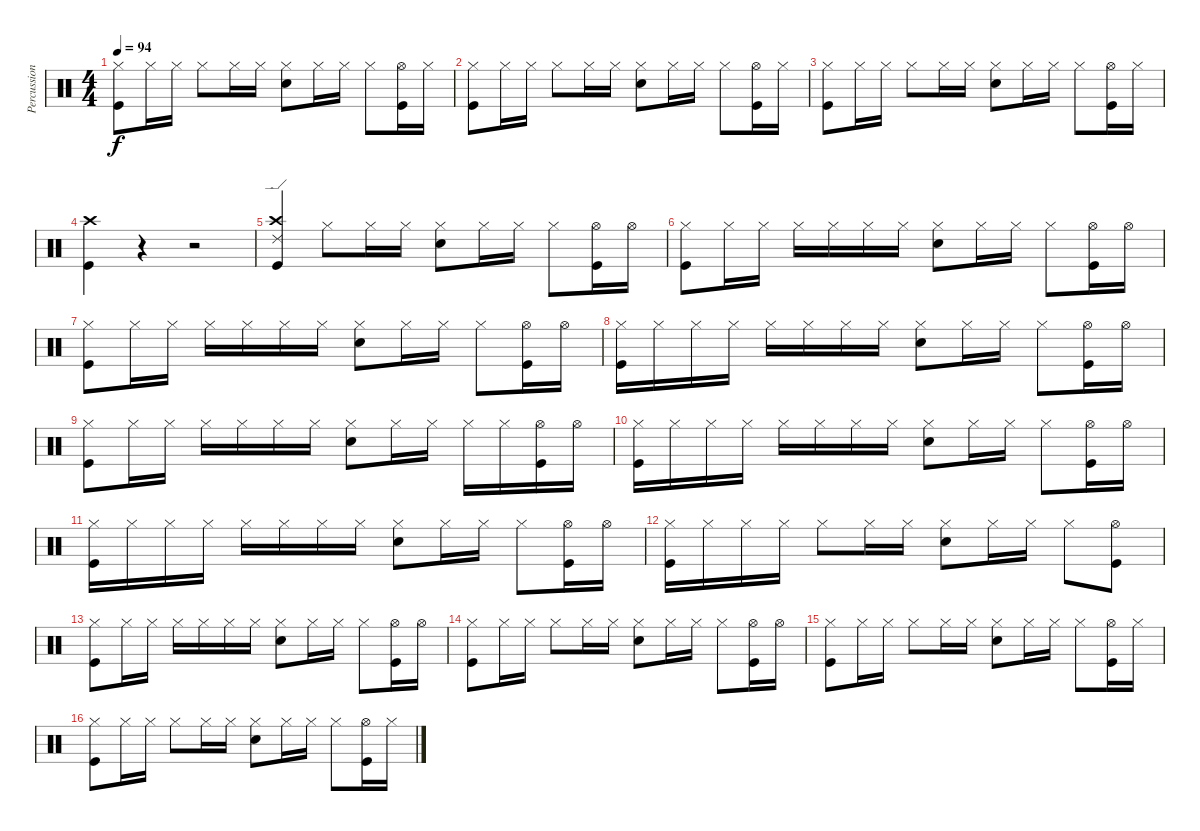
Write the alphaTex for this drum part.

\track ("Percussions" "Percussion") {instrument percussion}
\staff {score}
\articulation defaults
\ts (4 4)
\tempo 94
\clef neutral
\ks c
("Hi-Hat (closed)" "Kick (hit)").8{dy f} "Hi-Hat (closed)".16 "Hi-Hat (closed)".16 "Hi-Hat (closed)".8 "Hi-Hat (closed)".16 "Hi-Hat (closed)".16 ("Hi-Hat (closed)" "Electric Snare (hit)").8 "Hi-Hat (closed)".16 "Hi-Hat (closed)".16 "Hi-Hat (closed)".8 ("Hi-Hat (open)" "Kick (hit)").16 "Hi-Hat (closed)".16 |
("Hi-Hat (closed)" "Kick (hit)").8 "Hi-Hat (closed)".16 "Hi-Hat (closed)".16 "Hi-Hat (closed)".8 "Hi-Hat (closed)".16 "Hi-Hat (closed)".16 ("Hi-Hat (closed)" "Electric Snare (hit)").8 "Hi-Hat (closed)".16 "Hi-Hat (closed)".16 "Hi-Hat (closed)".8 ("Hi-Hat (open)" "Kick (hit)").16 "Hi-Hat (closed)".16 |
("Hi-Hat (closed)" "Kick (hit)").8 "Hi-Hat (closed)".16 "Hi-Hat (closed)".16 "Hi-Hat (closed)".8 "Hi-Hat (closed)".16 "Hi-Hat (closed)".16 ("Hi-Hat (closed)" "Electric Snare (hit)").8 "Hi-Hat (closed)".16 "Hi-Hat (closed)".16 "Hi-Hat (closed)".8 ("Hi-Hat (open)" "Kick (hit)").16 "Hi-Hat (closed)".16 |
("Crash high (hit)" "Kick (hit)").4 r.4 r.2 |
("Crash high (hit)" "Ride (edge) 2" "Kick (hit)").4 "Hi-Hat (closed)".8 "Hi-Hat (closed)".16 "Hi-Hat (closed)".16 ("Hi-Hat (closed)" "Electric Snare (hit)").8 "Hi-Hat (closed)".16 "Hi-Hat (closed)".16 "Hi-Hat (closed)".8 ("Hi-Hat (open)" "Kick (hit)").16 "Hi-Hat (open)".16 |
("Hi-Hat (closed)" "Kick (hit)").8 "Hi-Hat (closed)".16 "Hi-Hat (closed)".16 "Hi-Hat (closed)".16 "Hi-Hat (closed)".16 "Hi-Hat (closed)".16 "Hi-Hat (closed)".16 ("Hi-Hat (closed)" "Electric Snare (hit)").8 "Hi-Hat (closed)".16 "Hi-Hat (closed)".16 "Hi-Hat (closed)".8 ("Hi-Hat (open)" "Kick (hit)").16 "Hi-Hat (open)".16 |
("Hi-Hat (closed)" "Kick (hit)").8 "Hi-Hat (closed)".16 "Hi-Hat (closed)".16 "Hi-Hat (closed)".16 "Hi-Hat (closed)".16 "Hi-Hat (closed)".16 "Hi-Hat (closed)".16 ("Hi-Hat (closed)" "Electric Snare (hit)").8 "Hi-Hat (closed)".16 "Hi-Hat (closed)".16 "Hi-Hat (closed)".8 ("Hi-Hat (open)" "Kick (hit)").16 "Hi-Hat (open)".16 |
("Hi-Hat (closed)" "Kick (hit)").16 "Hi-Hat (closed)".16 "Hi-Hat (closed)".16 "Hi-Hat (closed)".16 "Hi-Hat (closed)".16 "Hi-Hat (closed)".16 "Hi-Hat (closed)".16 "Hi-Hat (closed)".16 ("Hi-Hat (closed)" "Electric Snare (hit)").8 "Hi-Hat (closed)".16 "Hi-Hat (closed)".16 "Hi-Hat (closed)".8 ("Hi-Hat (open)" "Kick (hit)").16 "Hi-Hat (open)".16 |
("Hi-Hat (closed)" "Kick (hit)").8 "Hi-Hat (closed)".16 "Hi-Hat (closed)".16 "Hi-Hat (closed)".16 "Hi-Hat (closed)".16 "Hi-Hat (closed)".16 "Hi-Hat (closed)".16 ("Hi-Hat (closed)" "Electric Snare (hit)").8 "Hi-Hat (closed)".16 "Hi-Hat (closed)".16 "Hi-Hat (closed)".16 "Hi-Hat (closed)".16 ("Hi-Hat (open)" "Kick (hit)").16 "Hi-Hat (open)".16 |
("Hi-Hat (closed)" "Kick (hit)").16 "Hi-Hat (closed)".16 "Hi-Hat (closed)".16 "Hi-Hat (closed)".16 "Hi-Hat (closed)".16 "Hi-Hat (closed)".16 "Hi-Hat (closed)".16 "Hi-Hat (closed)".16 ("Hi-Hat (closed)" "Electric Snare (hit)").8 "Hi-Hat (closed)".16 "Hi-Hat (closed)".16 "Hi-Hat (closed)".8 ("Hi-Hat (open)" "Kick (hit)").16 "Hi-Hat (open)".16 |
("Hi-Hat (closed)" "Kick (hit)").16 "Hi-Hat (closed)".16 "Hi-Hat (closed)".16 "Hi-Hat (closed)".16 "Hi-Hat (closed)".16 "Hi-Hat (closed)".16 "Hi-Hat (closed)".16 "Hi-Hat (closed)".16 ("Hi-Hat (closed)" "Electric Snare (hit)").8 "Hi-Hat (closed)".16 "Hi-Hat (closed)".16 "Hi-Hat (closed)".8 ("Hi-Hat (open)" "Kick (hit)").16 "Hi-Hat (open)".16 |
("Hi-Hat (closed)" "Kick (hit)").16 "Hi-Hat (closed)".16 "Hi-Hat (closed)".16 "Hi-Hat (closed)".16 "Hi-Hat (closed)".8 "Hi-Hat (closed)".16 "Hi-Hat (closed)".16 ("Hi-Hat (closed)" "Electric Snare (hit)").8 "Hi-Hat (closed)".16 "Hi-Hat (closed)".16 "Hi-Hat (closed)".8 ("Hi-Hat (open)" "Kick (hit)").8 |
("Hi-Hat (closed)" "Kick (hit)").8 "Hi-Hat (closed)".16 "Hi-Hat (closed)".16 "Hi-Hat (closed)".16 "Hi-Hat (closed)".16 "Hi-Hat (closed)".16 "Hi-Hat (closed)".16 ("Hi-Hat (closed)" "Electric Snare (hit)").8 "Hi-Hat (closed)".16 "Hi-Hat (closed)".16 "Hi-Hat (closed)".8 ("Hi-Hat (open)" "Kick (hit)").16 "Hi-Hat (open)".16 |
("Hi-Hat (closed)" "Kick (hit)").8 "Hi-Hat (closed)".16 "Hi-Hat (closed)".16 "Hi-Hat (closed)".8 "Hi-Hat (closed)".16 "Hi-Hat (closed)".16 ("Hi-Hat (closed)" "Electric Snare (hit)").8 "Hi-Hat (closed)".16 "Hi-Hat (closed)".16 "Hi-Hat (closed)".8 ("Hi-Hat (open)" "Kick (hit)").16 "Hi-Hat (open)".16 |
("Hi-Hat (closed)" "Kick (hit)").8 "Hi-Hat (closed)".16 "Hi-Hat (closed)".16 "Hi-Hat (closed)".8 "Hi-Hat (closed)".16 "Hi-Hat (closed)".16 ("Hi-Hat (closed)" "Electric Snare (hit)").8 "Hi-Hat (closed)".16 "Hi-Hat (closed)".16 "Hi-Hat (closed)".8 ("Hi-Hat (open)" "Kick (hit)").16 "Hi-Hat (closed)".16 |
("Hi-Hat (closed)" "Kick (hit)").8 "Hi-Hat (closed)".16 "Hi-Hat (closed)".16 "Hi-Hat (closed)".8 "Hi-Hat (closed)".16 "Hi-Hat (closed)".16 ("Hi-Hat (closed)" "Electric Snare (hit)").8 "Hi-Hat (closed)".16 "Hi-Hat (closed)".16 "Hi-Hat (closed)".8 ("Hi-Hat (open)" "Kick (hit)").16 "Hi-Hat (closed)".16
